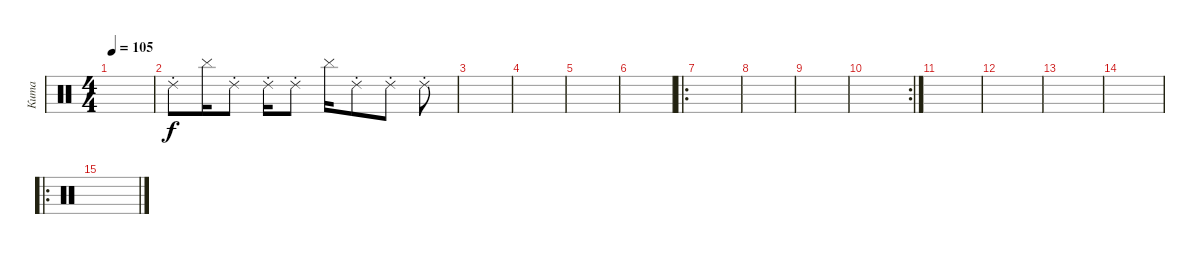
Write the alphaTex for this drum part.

\track ("Кита" "Кита") {instrument percussion}
\staff {score}
\articulation defaults
\ts (4 4)
\tempo 105
\clef neutral
\ks c
|
"Ride (choke) 2".8 "Cymbal (hit)".16 "Ride (choke) 2".8 "Ride (choke) 2".16 "Ride (choke) 2".8 "Cymbal (hit)".16 "Ride (choke) 2".8 "Ride (choke) 2".8 "Ride (choke) 2".8 |
|
|
|
|
\ro
|
|
|
\rc 2
|
|
|
|
|
\ro
